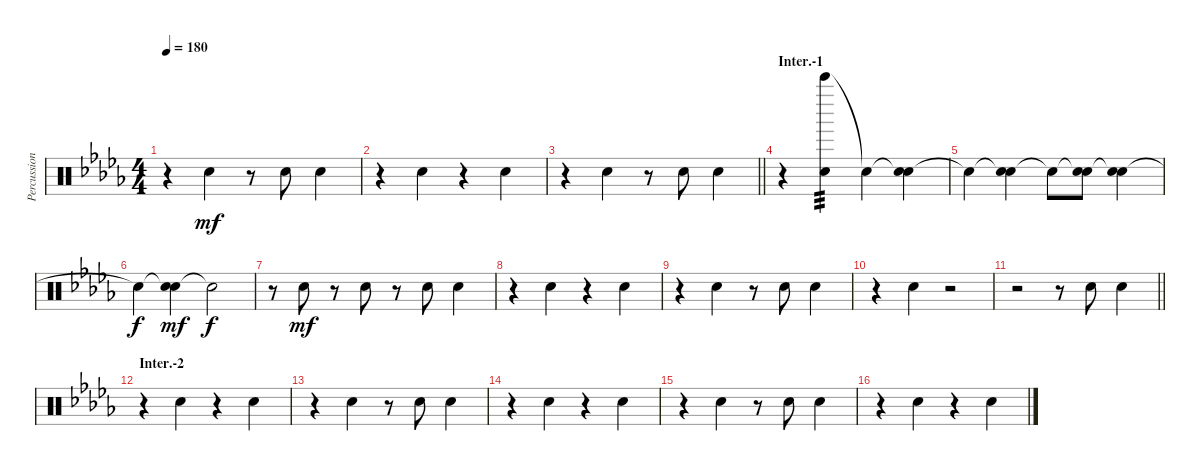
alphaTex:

\track ("Percussion I (Tainaka Ritsu)" "Percussion") {instrument percussion}
\staff {score}
\articulation defaults
\ts (4 4)
\tempo 180
\clef neutral
\ks db
r.4{dy mf} "Hand Clap (hit)".4 r.8 "Hand Clap (hit)".8 "Hand Clap (hit)".4 |
r.4 "Hand Clap (hit)".4 r.4 "Hand Clap (hit)".4 |
\barLineRight lightlight
r.4 "Hand Clap (hit)".4 r.8 "Hand Clap (hit)".8 "Hand Clap (hit)".4 |
\section ("" "Inter.-1")
r.4 ("Bell Tree (hit)" "Hand Clap (hit)").4{tp 3} "Snare (hit)"{t}.4 ("Snare (hit)"{t} "Hand Clap (hit)").4 |
"Snare (hit)"{t}.4 ("Snare (hit)"{t} "Hand Clap (hit)").4 "Snare (hit)"{t}.8 ("Snare (hit)"{t} "Hand Clap (hit)").8 ("Snare (hit)"{t} "Hand Clap (hit)").4 |
"Snare (hit)"{t}.4{dy f} ("Snare (hit)"{t} "Hand Clap (hit)").4{dy mf} "Snare (hit)"{t}.2{dy f} |
r.8 "Hand Clap (hit)".8{dy mf} r.8 "Hand Clap (hit)".8 r.8 "Hand Clap (hit)".8 "Hand Clap (hit)".4 |
r.4 "Hand Clap (hit)".4 r.4 "Hand Clap (hit)".4 |
r.4 "Hand Clap (hit)".4 r.8 "Hand Clap (hit)".8 "Hand Clap (hit)".4 |
r.4 "Hand Clap (hit)".4 r.2 |
\barLineRight lightlight
r.2 r.8 "Hand Clap (hit)".8 "Hand Clap (hit)".4 |
\section ("" "Inter.-2")
r.4 "Hand Clap (hit)".4 r.4 "Hand Clap (hit)".4 |
r.4 "Hand Clap (hit)".4 r.8 "Hand Clap (hit)".8 "Hand Clap (hit)".4 |
r.4 "Hand Clap (hit)".4 r.4 "Hand Clap (hit)".4 |
r.4 "Hand Clap (hit)".4 r.8 "Hand Clap (hit)".8 "Hand Clap (hit)".4 |
r.4 "Hand Clap (hit)".4 r.4 "Hand Clap (hit)".4
